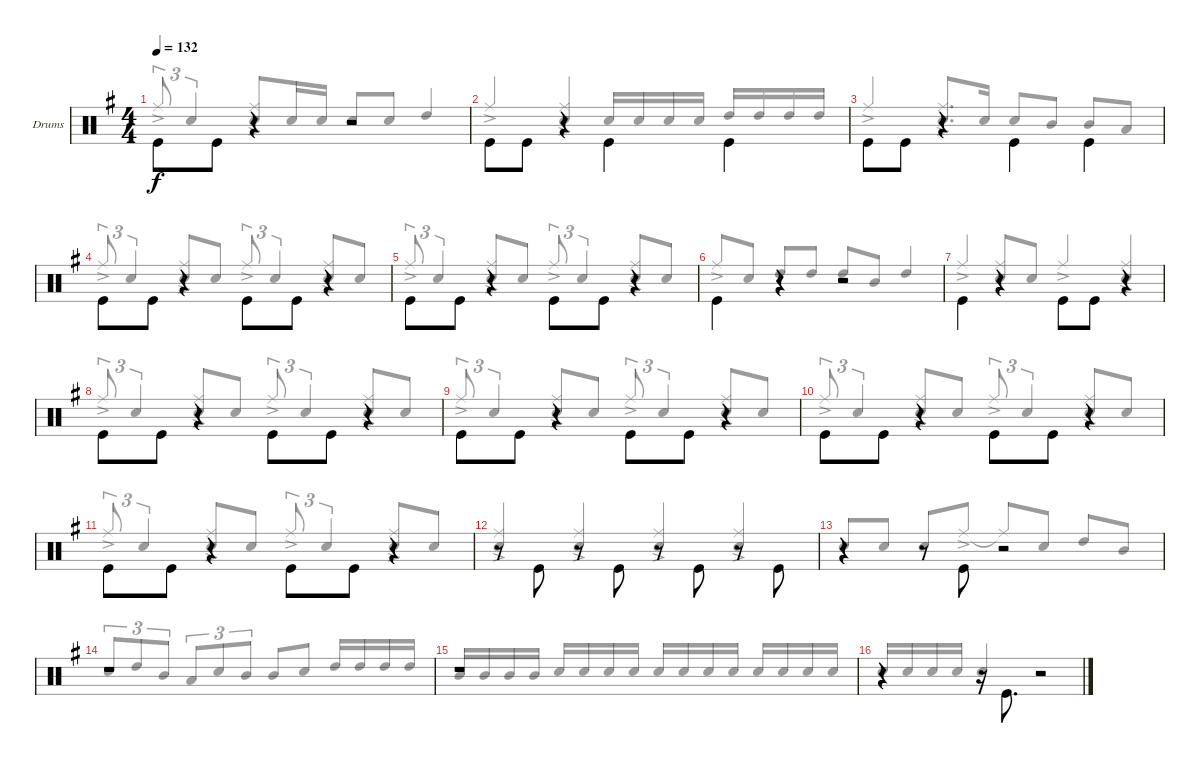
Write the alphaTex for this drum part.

\bracketExtendMode groupsimilarinstruments
\firstSystemTrackNameOrientation horizontal
\otherSystemsTrackNameOrientation horizontal
\track ("Drums" "Drums") {instrument percussion}
\staff {score}
\articulation defaults
\voice
\ts (4 4)
\tempo 132
\clef neutral
\scale
1.04288
\ks g "Kick (hit)".8{dy f beam invert} "Kick (hit)".8
r.4 r.2 |
\scale
0.957125 "Kick (hit)".8{beam invert} "Kick (hit)".8 r.4 "Kick (hit)".4{beam invert} "Kick (hit)".4{beam invert} |
\scale
1.04288 "Kick (hit)".8{beam invert} "Kick (hit)".8 r.4 "Kick (hit)".4{beam invert} "Kick (hit)".4{beam invert} |
\scale
0.957125 "Kick (hit)".8{beam invert} "Kick (hit)".8 r.4 "Kick (hit)".8{beam invert} "Kick (hit)".8 r.4 |
\scale
1.04288 "Kick (hit)".8{beam invert} "Kick (hit)".8 r.4 "Kick (hit)".8{beam invert} "Kick (hit)".8 r.4 |
\scale
0.957125 "Kick (hit)".4{beam invert} r.4 r.2 |
\scale
1.04288 "Kick (hit)".4{beam invert} r.4 "Kick (hit)".8{beam invert} "Kick (hit)".8 r.4 |
\scale
0.957125 "Kick (hit)".8{beam invert} "Kick (hit)".8 r.4 "Kick (hit)".8{beam invert} "Kick (hit)".8 r.4 |
\scale
1.04288 "Kick (hit)".8{beam invert} "Kick (hit)".8 r.4 "Kick (hit)".8{beam invert} "Kick (hit)".8 r.4 |
\scale
0.957125 "Kick (hit)".8{beam invert} "Kick (hit)".8 r.4 "Kick (hit)".8{beam invert} "Kick (hit)".8 r.4 |
\scale
1.07314 "Kick (hit)".8{beam invert} "Kick (hit)".8 r.4 "Kick (hit)".8{beam invert} "Kick (hit)".8 r.4 |
\scale
0.92686 r.8 "Kick (hit)".8{beam invert} r.8 "Kick (hit)".8{beam invert} r.8 "Kick (hit)".8{beam invert} r.8 "Kick (hit)".8{beam invert} |
\scale
1.04288 r.4 r.8 "Kick (hit)".8{beam invert} r.2 |
\scale
0.957125 r.1 |
\scale
1.04288 r.1 |
\scale
0.957125 r.4 r.16 "Kick (hit)".8{d beam invert} r.2
\voice
\clef neutral
\ottava regular
\simile none
\scale
1.04288
\ks g "Ride (middle)"{ac}.8{tu (3 2) dy f beam invert} "Snare (hit) 2".4{tu (3 2) beam invert}
("Snare (hit) 2" "Ride (middle)"{ac}).8{beam invert} "Snare (hit) 2".16{beam merge} "Snare (hit) 2".16 "Snare (hit) 2".8{beam invert} "Snare (hit) 2".8 "High Tom (hit)".4{beam invert} |
\scale
0.957125 "Ride (middle)"{ac}.4{beam invert} ("Snare (hit) 2" "Ride (middle)"{ac}).4{beam invert} "Snare (hit) 2".16{beam invert} "Snare (hit) 2".16 "Snare (hit) 2".16 "Snare (hit) 2".16 "High Tom (hit)".16{beam invert} "High Tom (hit)".16 "High Tom (hit)".16 "High Tom (hit)".16 |
\scale
1.04288 "Ride (middle)"{ac}.4{beam invert} ("Snare (hit) 2" "Ride (middle)"{ac}).8{d beam invert} "Snare (hit) 2".16 "Snare (hit) 2".8{beam invert} "Mid Tom (hit)".8 "Mid Tom (hit)".8{beam invert} "Low Tom (hit)".8 |
\scale
0.957125 "Ride (middle)"{ac}.8{tu (3 2) beam invert} "Snare (hit) 2".4{tu (3 2) beam invert} ("Snare (hit) 2" "Ride (middle)"{ac}).8{beam invert} "Snare (hit) 2".8 "Ride (middle)"{ac}.8{tu (3 2) beam invert} "Snare (hit) 2".4{tu (3 2) beam invert} ("Snare (hit) 2" "Ride (middle)"{ac}).8{beam invert} "Snare (hit) 2".8 |
\scale
1.04288 "Ride (middle)"{ac}.8{tu (3 2) beam invert} "Snare (hit) 2".4{tu (3 2) beam invert} ("Snare (hit) 2" "Ride (middle)"{ac}).8{beam invert} "Snare (hit) 2".8 "Ride (middle)"{ac}.8{tu (3 2) beam invert} "Snare (hit) 2".4{tu (3 2) beam invert} ("Snare (hit) 2" "Ride (middle)"{ac}).8{beam invert} "Snare (hit) 2".8 |
\scale
0.957125 "Ride (middle)"{ac}.8{beam invert} "Snare (hit) 2".8 "High Tom (hit)".8{beam invert} "High Tom (hit)".8 "High Tom (hit)".8{beam invert} "Mid Tom (hit)".8 "High Tom (hit)".4{beam invert} |
\scale
1.04288 "Ride (middle)"{ac}.4{beam invert} ("Snare (hit) 2" "Ride (middle)").8{beam invert} "Snare (hit) 2".8 "Ride (middle)"{ac}.4{beam invert} ("Snare (hit) 2" "Ride (middle)"{ac}).4{beam invert} |
\scale
0.957125 "Ride (middle)"{ac}.8{tu (3 2) beam invert} "Snare (hit) 2".4{tu (3 2) beam invert} ("Snare (hit) 2" "Ride (middle)"{ac}).8{beam invert} "Snare (hit) 2".8 "Ride (middle)"{ac}.8{tu (3 2) beam invert} "Snare (hit) 2".4{tu (3 2) beam invert} ("Snare (hit) 2" "Ride (middle)"{ac}).8{beam invert} "Snare (hit) 2".8 |
\scale
1.04288 "Ride (middle)"{ac}.8{tu (3 2) beam invert} "Snare (hit) 2".4{tu (3 2) beam invert} ("Snare (hit) 2" "Ride (middle)"{ac}).8{beam invert} "Snare (hit) 2".8 "Ride (middle)"{ac}.8{tu (3 2) beam invert} "Snare (hit) 2".4{tu (3 2) beam invert} ("Snare (hit) 2" "Ride (middle)"{ac}).8{beam invert} "Snare (hit) 2".8 |
\scale
0.957125 "Ride (middle)"{ac}.8{tu (3 2) beam invert} "Snare (hit) 2".4{tu (3 2) beam invert} ("Snare (hit) 2" "Ride (middle)"{ac}).8{beam invert} "Snare (hit) 2".8 "Ride (middle)"{ac}.8{tu (3 2) beam invert} "Snare (hit) 2".4{tu (3 2) beam invert} ("Snare (hit) 2" "Ride (middle)"{ac}).8{beam invert} "Snare (hit) 2".8 |
\scale
1.07314 "Ride (middle)"{ac}.8{tu (3 2) beam invert} "Snare (hit) 2".4{tu (3 2) beam invert} ("Snare (hit) 2" "Ride (middle)"{ac}).8{beam invert} "Snare (hit) 2".8 "Ride (middle)"{ac}.8{tu (3 2) beam invert} "Snare (hit) 2".4{tu (3 2) beam invert} ("Snare (hit) 2" "Ride (middle)"{ac}).8{beam invert} "Snare (hit) 2".8 |
\scale
0.92686 ("Snare (hit) 2" "Ride (middle)"{ac}).4{beam invert} ("Snare (hit) 2" "Ride (middle)"{ac}).4{beam invert} ("Snare (hit) 2" "Ride (middle)"{ac}).4{beam invert} ("Snare (hit) 2" "Ride (middle)"{ac}).4{beam invert} |
\scale
1.04288 "Snare (hit) 2".8{beam invert} "Snare (hit) 2".8 "Snare (hit) 2".8{beam invert} "Ride (middle)"{ac}.8 "Ride (middle)"{t}.8{beam invert} "Snare (hit) 2".8 "High Tom (hit)".8{beam invert} "Mid Tom (hit)".8 |
\scale
0.957125 "Snare (hit) 2".8{tu (3 2) beam invert} "High Tom (hit)".8{tu (3 2)} "Mid Tom (hit)".8{tu (3 2)} "Low Tom (hit)".8{tu (3 2) beam invert} "Snare (hit) 2".8{tu (3 2)} "Mid Tom (hit)".8{tu (3 2)} "Mid Tom (hit)".8{beam invert} "Snare (hit) 2".8 "High Tom (hit)".16{beam invert} "High Tom (hit)".16 "High Tom (hit)".16 "High Tom (hit)".16 |
\scale
1.04288 "Mid Tom (hit)".16{beam invert} "Mid Tom (hit)".16 "Mid Tom (hit)".16 "Mid Tom (hit)".16 "Snare (hit) 2".16{beam invert} "Snare (hit) 2".16 "Snare (hit) 2".16 "Snare (hit) 2".16 "Snare (hit) 2".16{beam invert} "Snare (hit) 2".16 "Snare (hit) 2".16 "Snare (hit) 2".16 "Snare (hit) 2".16{beam invert} "Snare (hit) 2".16 "Snare (hit) 2".16 "Snare (hit) 2".16 |
\scale
0.957125 "Snare (hit) 2".16{beam invert} "Snare (hit) 2".16 "Snare (hit) 2".16 "Snare (hit) 2".16 "Snare (hit) 2".4{beam invert} r.2
